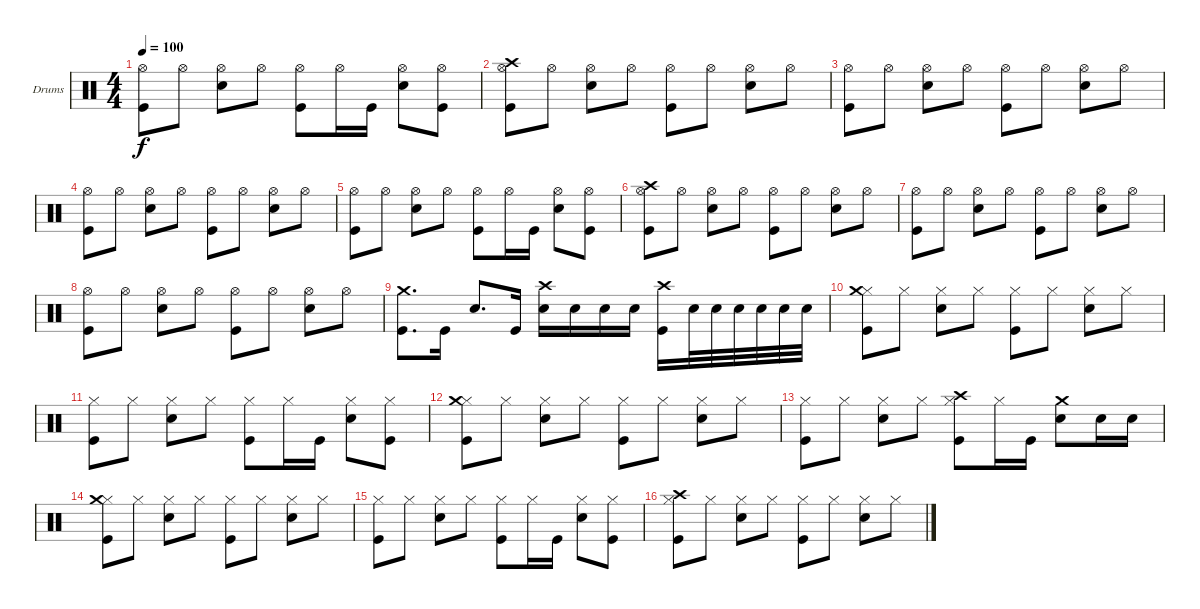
\defaultSystemsLayout 4
\bracketExtendMode groupsimilarinstruments
\firstSystemTrackNameOrientation horizontal
\otherSystemsTrackNameOrientation horizontal
\track ("Nick Menza " "Drums") {instrument percussion}
\staff {score}
\articulation defaults
\ts (4 4)
\tempo 100
\clef neutral
\ks c
("Hi-Hat (open)" "Kick (hit)").8{dy f} "Hi-Hat (open)".8 ("Hi-Hat (open)" "Snare (hit) 2").8 "Hi-Hat (open)".8 ("Hi-Hat (open)" "Kick (hit)").8 "Hi-Hat (open)".16 "Kick (hit)".16 ("Hi-Hat (open)" "Snare (hit) 2").8 ("Hi-Hat (open)" "Kick (hit)").8 |
("Crash high (hit)" "Hi-Hat (open)" "Kick (hit)").8 "Hi-Hat (open)".8 ("Hi-Hat (open)" "Snare (hit) 2").8 "Hi-Hat (open)".8 ("Hi-Hat (open)" "Kick (hit)").8 "Hi-Hat (open)".8 ("Hi-Hat (open)" "Snare (hit) 2").8 "Hi-Hat (open)".8 |
("Hi-Hat (open)" "Kick (hit)").8 "Hi-Hat (open)".8 ("Hi-Hat (open)" "Snare (hit) 2").8 "Hi-Hat (open)".8 ("Hi-Hat (open)" "Kick (hit)").8 "Hi-Hat (open)".8 ("Hi-Hat (open)" "Snare (hit) 2").8 "Hi-Hat (open)".8 |
("Hi-Hat (open)" "Kick (hit)").8 "Hi-Hat (open)".8 ("Hi-Hat (open)" "Snare (hit) 2").8 "Hi-Hat (open)".8 ("Hi-Hat (open)" "Kick (hit)").8 "Hi-Hat (open)".8 ("Hi-Hat (open)" "Snare (hit) 2").8 "Hi-Hat (open)".8 |
("Hi-Hat (open)" "Kick (hit)").8 "Hi-Hat (open)".8 ("Hi-Hat (open)" "Snare (hit) 2").8 "Hi-Hat (open)".8 ("Hi-Hat (open)" "Kick (hit)").8 "Hi-Hat (open)".16 "Kick (hit)".16 ("Hi-Hat (open)" "Snare (hit) 2").8 ("Hi-Hat (open)" "Kick (hit)").8 |
("Crash high (hit)" "Hi-Hat (open)" "Kick (hit)").8 "Hi-Hat (open)".8 ("Hi-Hat (open)" "Snare (hit) 2").8 "Hi-Hat (open)".8 ("Hi-Hat (open)" "Kick (hit)").8 "Hi-Hat (open)".8 ("Hi-Hat (open)" "Snare (hit) 2").8 "Hi-Hat (open)".8 |
("Hi-Hat (open)" "Kick (hit)").8 "Hi-Hat (open)".8 ("Hi-Hat (open)" "Snare (hit) 2").8 "Hi-Hat (open)".8 ("Hi-Hat (open)" "Kick (hit)").8 "Hi-Hat (open)".8 ("Hi-Hat (open)" "Snare (hit) 2").8 "Hi-Hat (open)".8 |
("Hi-Hat (open)" "Kick (hit)").8 "Hi-Hat (open)".8 ("Hi-Hat (open)" "Snare (hit) 2").8 "Hi-Hat (open)".8 ("Hi-Hat (open)" "Kick (hit)").8 "Hi-Hat (open)".8 ("Hi-Hat (open)" "Snare (hit) 2").8 "Hi-Hat (open)".8 |
("Crash medium (hit)" "Kick (hit)").8{d} "Kick (hit)".16 "Snare (hit) 2".8{d} "Kick (hit)".16 ("Crash high (hit)" "Snare (hit) 2").16 "Snare (hit) 2".16 "Snare (hit) 2".16 "Snare (hit) 2".16 ("Crash high (hit)" "Kick (hit)").16 "Snare (hit) 2".32 "Snare (hit) 2".32 "Snare (hit) 2".32 "Snare (hit) 2".32 "Snare (hit) 2".32 "Snare (hit) 2".32 |
("Hi-Hat (closed)" "Kick (hit)" "Crash medium (hit)").8 "Hi-Hat (closed)".8 ("Hi-Hat (closed)" "Snare (hit) 2").8 "Hi-Hat (closed)".8 ("Hi-Hat (closed)" "Kick (hit)").8 "Hi-Hat (closed)".8 ("Hi-Hat (closed)" "Snare (hit) 2").8 "Hi-Hat (closed)".8 |
("Hi-Hat (closed)" "Kick (hit)").8 "Hi-Hat (closed)".8 ("Hi-Hat (closed)" "Snare (hit) 2").8 "Hi-Hat (closed)".8 ("Hi-Hat (closed)" "Kick (hit)").8 "Hi-Hat (closed)".16 "Kick (hit)".16 ("Hi-Hat (closed)" "Snare (hit) 2").8 ("Hi-Hat (closed)" "Kick (hit)").8 |
("Hi-Hat (closed)" "Kick (hit)" "Crash medium (hit)").8 "Hi-Hat (closed)".8 ("Hi-Hat (closed)" "Snare (hit) 2").8 "Hi-Hat (closed)".8 ("Hi-Hat (closed)" "Kick (hit)").8 "Hi-Hat (closed)".8 ("Hi-Hat (closed)" "Snare (hit) 2").8 "Hi-Hat (closed)".8 |
("Hi-Hat (closed)" "Kick (hit)").8 "Hi-Hat (closed)".8 ("Hi-Hat (closed)" "Snare (hit) 2").8 "Hi-Hat (closed)".8 ("Hi-Hat (closed)" "Kick (hit)" "Crash high (hit)").8 "Hi-Hat (closed)".16 "Kick (hit)".16 ("Snare (hit) 2" "Crash medium (hit)").8 "Snare (hit) 2".16 "Snare (hit) 2".16 |
("Hi-Hat (closed)" "Kick (hit)" "Crash medium (hit)").8 "Hi-Hat (closed)".8 ("Hi-Hat (closed)" "Snare (hit) 2").8 "Hi-Hat (closed)".8 ("Hi-Hat (closed)" "Kick (hit)").8 "Hi-Hat (closed)".8 ("Hi-Hat (closed)" "Snare (hit) 2").8 "Hi-Hat (closed)".8 |
("Hi-Hat (closed)" "Kick (hit)").8 "Hi-Hat (closed)".8 ("Hi-Hat (closed)" "Snare (hit) 2").8 "Hi-Hat (closed)".8 ("Hi-Hat (closed)" "Kick (hit)").8 "Hi-Hat (closed)".16 "Kick (hit)".16 ("Hi-Hat (closed)" "Snare (hit) 2").8 ("Hi-Hat (closed)" "Kick (hit)").8 |
("Hi-Hat (closed)" "Kick (hit)" "Crash high (hit)").8 "Hi-Hat (closed)".8 ("Hi-Hat (closed)" "Snare (hit) 2").8 "Hi-Hat (closed)".8 ("Hi-Hat (closed)" "Kick (hit)").8 "Hi-Hat (closed)".8 ("Hi-Hat (closed)" "Snare (hit) 2").8 "Hi-Hat (closed)".8
